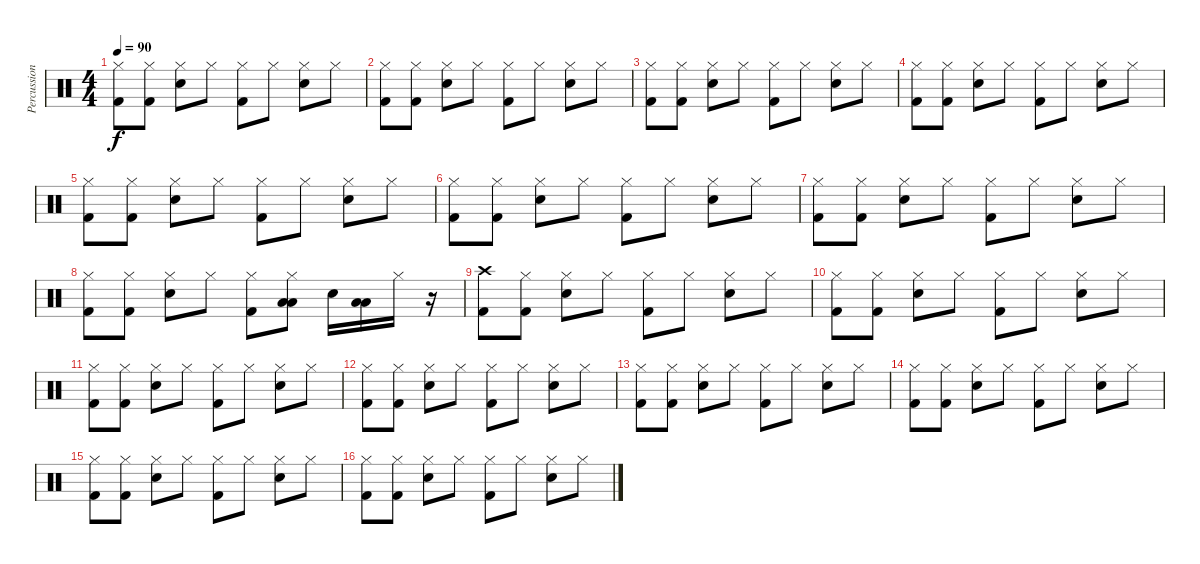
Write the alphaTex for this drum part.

\track ("Percussion" "Percussion") {instrument percussion}
\staff {score}
\articulation defaults
\ts (4 4)
\tempo 90
\clef neutral
\ks c
("Hi-Hat (closed)" "Kick (hit) 2").8{dy f} ("Hi-Hat (closed)" "Kick (hit) 2").8 ("Hi-Hat (closed)" "Snare (hit) 2").8 "Hi-Hat (closed)".8 ("Hi-Hat (closed)" "Kick (hit) 2").8 "Hi-Hat (closed)".8 ("Hi-Hat (closed)" "Snare (hit) 2").8 "Hi-Hat (closed)".8 |
("Hi-Hat (closed)" "Kick (hit) 2").8 ("Hi-Hat (closed)" "Kick (hit) 2").8 ("Hi-Hat (closed)" "Snare (hit) 2").8 "Hi-Hat (closed)".8 ("Hi-Hat (closed)" "Kick (hit) 2").8 "Hi-Hat (closed)".8 ("Hi-Hat (closed)" "Snare (hit) 2").8 "Hi-Hat (closed)".8 |
("Hi-Hat (closed)" "Kick (hit) 2").8 ("Hi-Hat (closed)" "Kick (hit) 2").8 ("Hi-Hat (closed)" "Snare (hit) 2").8 "Hi-Hat (closed)".8 ("Hi-Hat (closed)" "Kick (hit) 2").8 "Hi-Hat (closed)".8 ("Hi-Hat (closed)" "Snare (hit) 2").8 "Hi-Hat (closed)".8 |
("Hi-Hat (closed)" "Kick (hit) 2").8 ("Hi-Hat (closed)" "Kick (hit) 2").8 ("Hi-Hat (closed)" "Snare (hit) 2").8 "Hi-Hat (closed)".8 ("Hi-Hat (closed)" "Kick (hit) 2").8 "Hi-Hat (closed)".8 ("Hi-Hat (closed)" "Snare (hit) 2").8 "Hi-Hat (closed)".8 |
("Hi-Hat (closed)" "Kick (hit) 2").8 ("Hi-Hat (closed)" "Kick (hit) 2").8 ("Hi-Hat (closed)" "Snare (hit) 2").8 "Hi-Hat (closed)".8 ("Hi-Hat (closed)" "Kick (hit) 2").8 "Hi-Hat (closed)".8 ("Hi-Hat (closed)" "Snare (hit) 2").8 "Hi-Hat (closed)".8 |
("Hi-Hat (closed)" "Kick (hit) 2").8 ("Hi-Hat (closed)" "Kick (hit) 2").8 ("Hi-Hat (closed)" "Snare (hit) 2").8 "Hi-Hat (closed)".8 ("Hi-Hat (closed)" "Kick (hit) 2").8 "Hi-Hat (closed)".8 ("Hi-Hat (closed)" "Snare (hit) 2").8 "Hi-Hat (closed)".8 |
("Hi-Hat (closed)" "Kick (hit) 2").8 ("Hi-Hat (closed)" "Kick (hit) 2").8 ("Hi-Hat (closed)" "Snare (hit) 2").8 "Hi-Hat (closed)".8 ("Hi-Hat (closed)" "Kick (hit) 2").8 "Hi-Hat (closed)".8 ("Hi-Hat (closed)" "Snare (hit) 2").8 "Hi-Hat (closed)".8 |
("Hi-Hat (closed)" "Kick (hit) 2").8 ("Hi-Hat (closed)" "Kick (hit) 2").8 ("Hi-Hat (closed)" "Snare (hit) 2").8 "Hi-Hat (closed)".8 ("Hi-Hat (closed)" "Kick (hit) 2").8 ("Hi-Hat (closed)" "Low Tom (hit)" "Low Tom (hit)").8 "Snare (hit) 2".16 ("Low Floor Tom (hit)" "Low Floor Tom (hit)").16 "Hi-Hat (closed)".16 r.16 |
("Crash high (hit)" "Kick (hit) 2").8 ("Hi-Hat (closed)" "Kick (hit) 2").8 ("Hi-Hat (closed)" "Snare (hit) 2").8 "Hi-Hat (closed)".8 ("Hi-Hat (closed)" "Kick (hit) 2").8 "Hi-Hat (closed)".8 ("Hi-Hat (closed)" "Snare (hit) 2").8 "Hi-Hat (closed)".8 |
("Hi-Hat (closed)" "Kick (hit) 2").8 ("Hi-Hat (closed)" "Kick (hit) 2").8 ("Hi-Hat (closed)" "Snare (hit) 2").8 "Hi-Hat (closed)".8 ("Hi-Hat (closed)" "Kick (hit) 2").8 "Hi-Hat (closed)".8 ("Hi-Hat (closed)" "Snare (hit) 2").8 "Hi-Hat (closed)".8 |
("Hi-Hat (closed)" "Kick (hit) 2").8 ("Hi-Hat (closed)" "Kick (hit) 2").8 ("Hi-Hat (closed)" "Snare (hit) 2").8 "Hi-Hat (closed)".8 ("Hi-Hat (closed)" "Kick (hit) 2").8 "Hi-Hat (closed)".8 ("Hi-Hat (closed)" "Snare (hit) 2").8 "Hi-Hat (closed)".8 |
("Hi-Hat (closed)" "Kick (hit) 2").8 ("Hi-Hat (closed)" "Kick (hit) 2").8 ("Hi-Hat (closed)" "Snare (hit) 2").8 "Hi-Hat (closed)".8 ("Hi-Hat (closed)" "Kick (hit) 2").8 "Hi-Hat (closed)".8 ("Hi-Hat (closed)" "Snare (hit) 2").8 "Hi-Hat (closed)".8 |
("Hi-Hat (closed)" "Kick (hit) 2").8 ("Hi-Hat (closed)" "Kick (hit) 2").8 ("Hi-Hat (closed)" "Snare (hit) 2").8 "Hi-Hat (closed)".8 ("Hi-Hat (closed)" "Kick (hit) 2").8 "Hi-Hat (closed)".8 ("Hi-Hat (closed)" "Snare (hit) 2").8 "Hi-Hat (closed)".8 |
("Hi-Hat (closed)" "Kick (hit) 2").8 ("Hi-Hat (closed)" "Kick (hit) 2").8 ("Hi-Hat (closed)" "Snare (hit) 2").8 "Hi-Hat (closed)".8 ("Hi-Hat (closed)" "Kick (hit) 2").8 "Hi-Hat (closed)".8 ("Hi-Hat (closed)" "Snare (hit) 2").8 "Hi-Hat (closed)".8 |
("Hi-Hat (closed)" "Kick (hit) 2").8 ("Hi-Hat (closed)" "Kick (hit) 2").8 ("Hi-Hat (closed)" "Snare (hit) 2").8 "Hi-Hat (closed)".8 ("Hi-Hat (closed)" "Kick (hit) 2").8 "Hi-Hat (closed)".8 ("Hi-Hat (closed)" "Snare (hit) 2").8 "Hi-Hat (closed)".8 |
("Hi-Hat (closed)" "Kick (hit) 2").8 ("Hi-Hat (closed)" "Kick (hit) 2").8 ("Hi-Hat (closed)" "Snare (hit) 2").8 "Hi-Hat (closed)".8 ("Hi-Hat (closed)" "Kick (hit) 2").8 "Hi-Hat (closed)".8 ("Hi-Hat (closed)" "Snare (hit) 2").8 "Hi-Hat (closed)".8
